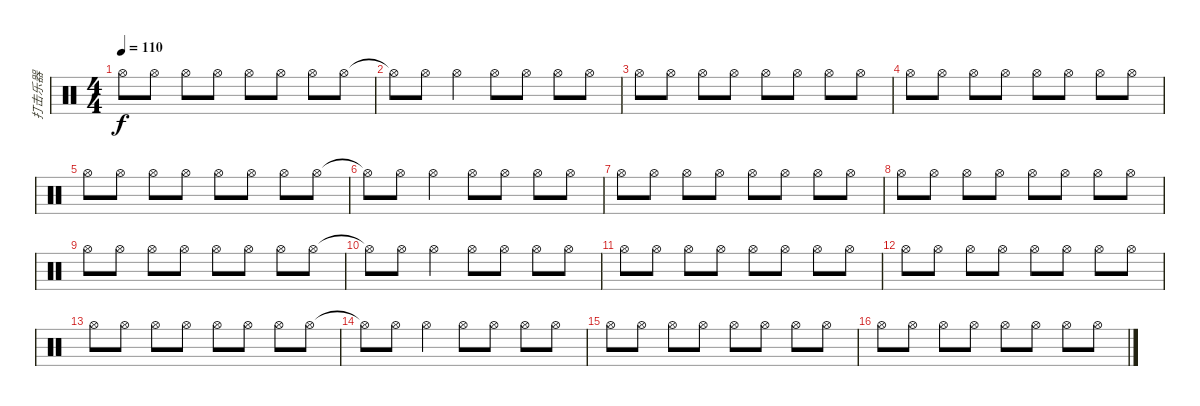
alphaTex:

\track ("打击乐器" "打击乐器") {instrument percussion}
\staff {score}
\articulation defaults
\ts (4 4)
\tempo 110
\clef neutral
\ks c "Hi-Hat (open)".8{dy f} "Hi-Hat (open)".8 "Hi-Hat (open)".8 "Hi-Hat (open)".8 "Hi-Hat (open)".8 "Hi-Hat (open)".8 "Hi-Hat (open)".8 "Hi-Hat (open)".8
|
"Hi-Hat (open)"{t}.8 "Hi-Hat (open)".8 "Hi-Hat (open)".4 "Hi-Hat (open)".8 "Hi-Hat (open)".8 "Hi-Hat (open)".8 "Hi-Hat (open)".8 |
"Hi-Hat (open)".8 "Hi-Hat (open)".8 "Hi-Hat (open)".8 "Hi-Hat (open)".8 "Hi-Hat (open)".8 "Hi-Hat (open)".8 "Hi-Hat (open)".8 "Hi-Hat (open)".8 |
"Hi-Hat (open)".8 "Hi-Hat (open)".8 "Hi-Hat (open)".8 "Hi-Hat (open)".8 "Hi-Hat (open)".8 "Hi-Hat (open)".8 "Hi-Hat (open)".8 "Hi-Hat (open)".8 |
"Hi-Hat (open)".8 "Hi-Hat (open)".8 "Hi-Hat (open)".8 "Hi-Hat (open)".8 "Hi-Hat (open)".8 "Hi-Hat (open)".8 "Hi-Hat (open)".8 "Hi-Hat (open)".8 |
"Hi-Hat (open)"{t}.8 "Hi-Hat (open)".8 "Hi-Hat (open)".4 "Hi-Hat (open)".8 "Hi-Hat (open)".8 "Hi-Hat (open)".8 "Hi-Hat (open)".8 |
"Hi-Hat (open)".8 "Hi-Hat (open)".8 "Hi-Hat (open)".8 "Hi-Hat (open)".8 "Hi-Hat (open)".8 "Hi-Hat (open)".8 "Hi-Hat (open)".8 "Hi-Hat (open)".8 |
"Hi-Hat (open)".8 "Hi-Hat (open)".8 "Hi-Hat (open)".8 "Hi-Hat (open)".8 "Hi-Hat (open)".8 "Hi-Hat (open)".8 "Hi-Hat (open)".8 "Hi-Hat (open)".8 |
"Hi-Hat (open)".8 "Hi-Hat (open)".8 "Hi-Hat (open)".8 "Hi-Hat (open)".8 "Hi-Hat (open)".8 "Hi-Hat (open)".8 "Hi-Hat (open)".8 "Hi-Hat (open)".8 |
"Hi-Hat (open)"{t}.8 "Hi-Hat (open)".8 "Hi-Hat (open)".4 "Hi-Hat (open)".8 "Hi-Hat (open)".8 "Hi-Hat (open)".8 "Hi-Hat (open)".8 |
"Hi-Hat (open)".8 "Hi-Hat (open)".8 "Hi-Hat (open)".8 "Hi-Hat (open)".8 "Hi-Hat (open)".8 "Hi-Hat (open)".8 "Hi-Hat (open)".8 "Hi-Hat (open)".8 |
"Hi-Hat (open)".8 "Hi-Hat (open)".8 "Hi-Hat (open)".8 "Hi-Hat (open)".8 "Hi-Hat (open)".8 "Hi-Hat (open)".8 "Hi-Hat (open)".8 "Hi-Hat (open)".8 |
"Hi-Hat (open)".8 "Hi-Hat (open)".8 "Hi-Hat (open)".8 "Hi-Hat (open)".8 "Hi-Hat (open)".8 "Hi-Hat (open)".8 "Hi-Hat (open)".8 "Hi-Hat (open)".8 |
"Hi-Hat (open)"{t}.8 "Hi-Hat (open)".8 "Hi-Hat (open)".4 "Hi-Hat (open)".8 "Hi-Hat (open)".8 "Hi-Hat (open)".8 "Hi-Hat (open)".8 |
"Hi-Hat (open)".8 "Hi-Hat (open)".8 "Hi-Hat (open)".8 "Hi-Hat (open)".8 "Hi-Hat (open)".8 "Hi-Hat (open)".8 "Hi-Hat (open)".8 "Hi-Hat (open)".8 |
"Hi-Hat (open)".8 "Hi-Hat (open)".8 "Hi-Hat (open)".8 "Hi-Hat (open)".8 "Hi-Hat (open)".8 "Hi-Hat (open)".8 "Hi-Hat (open)".8 "Hi-Hat (open)".8
